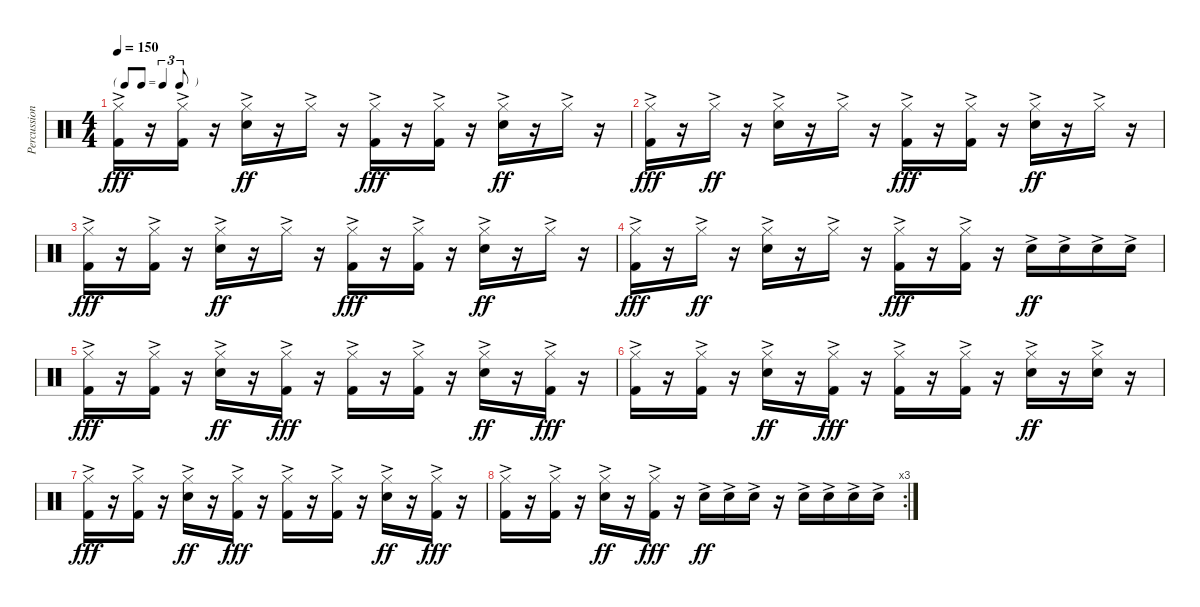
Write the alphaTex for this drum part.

\track ("Percussion" "Percussion") {instrument percussion}
\staff {score}
\articulation defaults
\ts (4 4)
\tf triplet8th
\tempo 150
\clef neutral
\ks c
("Hi-Hat (closed)"{ac} "Kick (hit) 2"{ac}).16{dy fff} r.16 ("Hi-Hat (closed)"{ac} "Kick (hit) 2"{ac}).16 r.16 ("Hi-Hat (closed)"{ac} "Snare (hit) 2"{ac}).16{dy ff} r.16 "Hi-Hat (closed)"{ac}.16 r.16 ("Hi-Hat (closed)"{ac} "Kick (hit) 2"{ac}).16{dy fff} r.16 ("Hi-Hat (closed)"{ac} "Kick (hit) 2"{ac}).16 r.16 ("Hi-Hat (closed)"{ac} "Snare (hit) 2"{ac}).16{dy ff} r.16 "Hi-Hat (closed)"{ac}.16 r.16 |
("Hi-Hat (closed)"{ac} "Kick (hit) 2"{ac}).16{dy fff} r.16 "Hi-Hat (closed)"{ac}.16{dy ff} r.16 ("Hi-Hat (closed)"{ac} "Snare (hit) 2"{ac}).16 r.16 "Hi-Hat (closed)"{ac}.16 r.16 ("Hi-Hat (closed)"{ac} "Kick (hit) 2"{ac}).16{dy fff} r.16 ("Hi-Hat (closed)"{ac} "Kick (hit) 2"{ac}).16 r.16 ("Hi-Hat (closed)"{ac} "Snare (hit) 2"{ac}).16{dy ff} r.16 "Hi-Hat (closed)"{ac}.16 r.16 |
("Hi-Hat (closed)"{ac} "Kick (hit) 2"{ac}).16{dy fff} r.16 ("Hi-Hat (closed)"{ac} "Kick (hit) 2"{ac}).16 r.16 ("Hi-Hat (closed)"{ac} "Snare (hit) 2"{ac}).16{dy ff} r.16 "Hi-Hat (closed)"{ac}.16 r.16 ("Hi-Hat (closed)"{ac} "Kick (hit) 2"{ac}).16{dy fff} r.16 ("Hi-Hat (closed)"{ac} "Kick (hit) 2"{ac}).16 r.16 ("Hi-Hat (closed)"{ac} "Snare (hit) 2"{ac}).16{dy ff} r.16 "Hi-Hat (closed)"{ac}.16 r.16 |
("Hi-Hat (closed)"{ac} "Kick (hit) 2"{ac}).16{dy fff} r.16 "Hi-Hat (closed)"{ac}.16{dy ff} r.16 ("Hi-Hat (closed)"{ac} "Snare (hit) 2"{ac}).16 r.16 "Hi-Hat (closed)"{ac}.16 r.16 ("Hi-Hat (closed)"{ac} "Kick (hit) 2"{ac}).16{dy fff} r.16 ("Hi-Hat (closed)"{ac} "Kick (hit) 2"{ac}).16 r.16 "Snare (hit) 2"{ac}.16{dy ff} "Snare (hit) 2"{ac}.16 "Snare (hit) 2"{ac}.16 "Snare (hit) 2"{ac}.16 |
("Hi-Hat (closed)"{ac} "Kick (hit) 2"{ac}).16{dy fff} r.16 ("Hi-Hat (closed)"{ac} "Kick (hit) 2"{ac}).16 r.16 ("Hi-Hat (closed)"{ac} "Snare (hit) 2"{ac}).16{dy ff} r.16 ("Hi-Hat (closed)"{ac} "Kick (hit) 2"{ac}).16{dy fff} r.16 ("Hi-Hat (closed)"{ac} "Kick (hit) 2"{ac}).16 r.16 ("Hi-Hat (closed)"{ac} "Kick (hit) 2"{ac}).16 r.16 ("Hi-Hat (closed)"{ac} "Snare (hit) 2"{ac}).16{dy ff} r.16 ("Hi-Hat (closed)"{ac} "Kick (hit) 2"{ac}).16{dy fff} r.16 |
("Hi-Hat (closed)"{ac} "Kick (hit) 2"{ac}).16 r.16 ("Hi-Hat (closed)"{ac} "Kick (hit) 2"{ac}).16 r.16 ("Hi-Hat (closed)"{ac} "Snare (hit) 2"{ac}).16{dy ff} r.16 ("Hi-Hat (closed)"{ac} "Kick (hit) 2"{ac}).16{dy fff} r.16 ("Hi-Hat (closed)"{ac} "Kick (hit) 2"{ac}).16 r.16 ("Hi-Hat (closed)"{ac} "Kick (hit) 2"{ac}).16 r.16 ("Hi-Hat (closed)"{ac} "Snare (hit) 2"{ac}).16{dy ff} r.16 ("Hi-Hat (closed)"{ac} "Snare (hit) 2"{ac}).16 r.16 |
("Hi-Hat (closed)"{ac} "Kick (hit) 2"{ac}).16{dy fff} r.16 ("Hi-Hat (closed)"{ac} "Kick (hit) 2"{ac}).16 r.16 ("Hi-Hat (closed)"{ac} "Snare (hit) 2"{ac}).16{dy ff} r.16 ("Hi-Hat (closed)"{ac} "Kick (hit) 2"{ac}).16{dy fff} r.16 ("Hi-Hat (closed)"{ac} "Kick (hit) 2"{ac}).16 r.16 ("Hi-Hat (closed)"{ac} "Kick (hit) 2"{ac}).16 r.16 ("Hi-Hat (closed)"{ac} "Snare (hit) 2"{ac}).16{dy ff} r.16 ("Hi-Hat (closed)"{ac} "Kick (hit) 2"{ac}).16{dy fff} r.16 |
\rc 3
("Hi-Hat (closed)"{ac} "Kick (hit) 2"{ac}).16 r.16 ("Hi-Hat (closed)"{ac} "Kick (hit) 2"{ac}).16 r.16 ("Hi-Hat (closed)"{ac} "Snare (hit) 2"{ac}).16{dy ff} r.16 ("Hi-Hat (closed)"{ac} "Kick (hit) 2"{ac}).16{dy fff} r.16 "Snare (hit) 2"{ac}.16{dy ff} "Snare (hit) 2"{ac}.16 "Snare (hit) 2"{ac}.16 r.16 "Snare (hit) 2"{ac}.16 "Snare (hit) 2"{ac}.16 "Snare (hit) 2"{ac}.16 "Snare (hit) 2"{ac}.16
